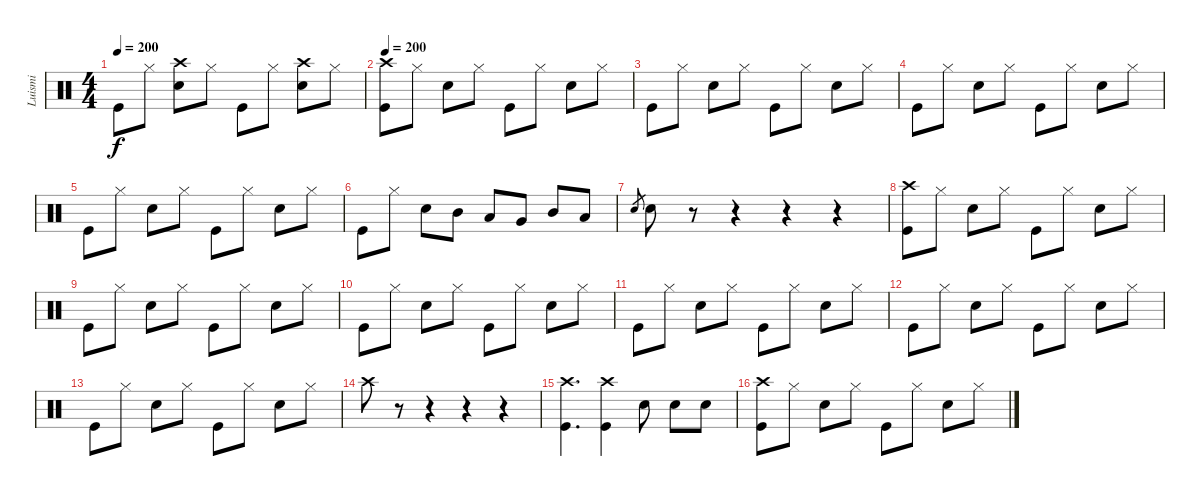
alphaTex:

\track ("Luismi" "Luismi") {instrument percussion}
\staff {score}
\articulation defaults
\ts (4 4)
\tempo 200
\clef neutral
\ks c "Kick (hit)".8{dy f} "Hi-Hat (closed)".8
("Snare (hit) 2" "Crash high (hit)").8 "Hi-Hat (closed)".8 "Kick (hit)".8 "Hi-Hat (closed)".8 ("Snare (hit) 2" "Crash high (hit)").8 "Hi-Hat (closed)".8 |
\tempo 200
("Crash high (hit)" "Kick (hit)").8 "Hi-Hat (closed)".8 "Snare (hit) 2".8 "Hi-Hat (closed)".8 "Kick (hit)".8 "Hi-Hat (closed)".8 "Snare (hit) 2".8 "Hi-Hat (closed)".8 |
"Kick (hit)".8 "Hi-Hat (closed)".8 "Snare (hit) 2".8 "Hi-Hat (closed)".8 "Kick (hit)".8 "Hi-Hat (closed)".8 "Snare (hit) 2".8 "Hi-Hat (closed)".8 |
"Kick (hit)".8 "Hi-Hat (closed)".8 "Snare (hit) 2".8 "Hi-Hat (closed)".8 "Kick (hit)".8 "Hi-Hat (closed)".8 "Snare (hit) 2".8 "Hi-Hat (closed)".8 |
"Kick (hit)".8 "Hi-Hat (closed)".8 "Snare (hit) 2".8 "Hi-Hat (closed)".8 "Kick (hit)".8 "Hi-Hat (closed)".8 "Snare (hit) 2".8 "Hi-Hat (closed)".8 |
"Kick (hit)".8 "Hi-Hat (closed)".8 "Snare (hit) 2".8 "Mid Tom (hit)".8 "Low Tom (hit)".8 "Very Low Tom (hit)".8 "Mid Tom (hit)".8 "Low Tom (hit)".8 |
"Snare (hit) 2".8{gr} "Snare (hit) 2".8 r.8 r.4 r.4 r.4 |
("Crash high (hit)" "Kick (hit)").8 "Hi-Hat (closed)".8 "Snare (hit) 2".8 "Hi-Hat (closed)".8 "Kick (hit)".8 "Hi-Hat (closed)".8 "Snare (hit) 2".8 "Hi-Hat (closed)".8 |
"Kick (hit)".8 "Hi-Hat (closed)".8 "Snare (hit) 2".8 "Hi-Hat (closed)".8 "Kick (hit)".8 "Hi-Hat (closed)".8 "Snare (hit) 2".8 "Hi-Hat (closed)".8 |
"Kick (hit)".8 "Hi-Hat (closed)".8 "Snare (hit) 2".8 "Hi-Hat (closed)".8 "Kick (hit)".8 "Hi-Hat (closed)".8 "Snare (hit) 2".8 "Hi-Hat (closed)".8 |
"Kick (hit)".8 "Hi-Hat (closed)".8 "Snare (hit) 2".8 "Hi-Hat (closed)".8 "Kick (hit)".8 "Hi-Hat (closed)".8 "Snare (hit) 2".8 "Hi-Hat (closed)".8 |
"Kick (hit)".8 "Hi-Hat (closed)".8 "Snare (hit) 2".8 "Hi-Hat (closed)".8 "Kick (hit)".8 "Hi-Hat (closed)".8 "Snare (hit) 2".8 "Hi-Hat (closed)".8 |
"Kick (hit)".8 "Hi-Hat (closed)".8 "Snare (hit) 2".8 "Hi-Hat (closed)".8 "Kick (hit)".8 "Hi-Hat (closed)".8 "Snare (hit) 2".8 "Hi-Hat (closed)".8 |
"Crash high (hit)".8 r.8 r.4 r.4 r.4 |
("Kick (hit)" "Crash high (hit)").4{d} ("Kick (hit)" "Crash high (hit)").4 "Snare (hit) 2".8 "Snare (hit) 2".8 "Snare (hit) 2".8 |
("Crash high (hit)" "Kick (hit)").8 "Hi-Hat (closed)".8 "Snare (hit) 2".8 "Hi-Hat (closed)".8 "Kick (hit)".8 "Hi-Hat (closed)".8 "Snare (hit) 2".8 "Hi-Hat (closed)".8
